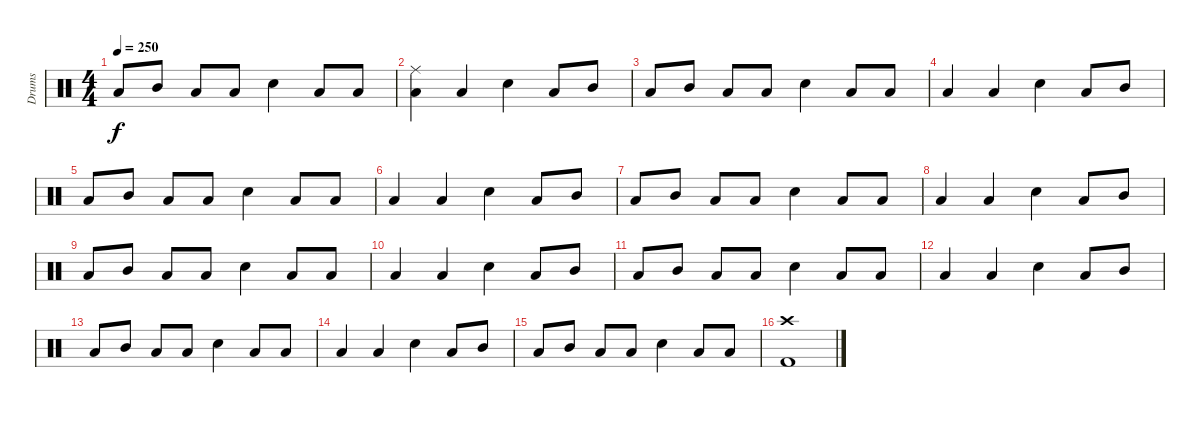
\track ("Drums" "Drums") {instrument percussion}
\staff {score}
\articulation defaults
\ts (4 4)
\tempo 250
\clef neutral
\ks c "Low Tom (hit)".8{dy f} "Mid Tom (hit)".8 "Low Tom (hit)".8 "Low Tom (hit)".8 "Electric Snare (hit)".4 "Low Tom (hit)".8 "Low Tom (hit)".8
|
("Ride (middle)" "Low Tom (hit)").4 "Low Tom (hit)".4 "Electric Snare (hit)".4 "Low Tom (hit)".8 "Mid Tom (hit)".8 |
"Low Tom (hit)".8 "Mid Tom (hit)".8 "Low Tom (hit)".8 "Low Tom (hit)".8 "Electric Snare (hit)".4 "Low Tom (hit)".8 "Low Tom (hit)".8 |
"Low Tom (hit)".4 "Low Tom (hit)".4 "Electric Snare (hit)".4 "Low Tom (hit)".8 "Mid Tom (hit)".8 |
"Low Tom (hit)".8 "Mid Tom (hit)".8 "Low Tom (hit)".8 "Low Tom (hit)".8 "Electric Snare (hit)".4 "Low Tom (hit)".8 "Low Tom (hit)".8 |
"Low Tom (hit)".4 "Low Tom (hit)".4 "Electric Snare (hit)".4 "Low Tom (hit)".8 "Mid Tom (hit)".8 |
"Low Tom (hit)".8 "Mid Tom (hit)".8 "Low Tom (hit)".8 "Low Tom (hit)".8 "Electric Snare (hit)".4 "Low Tom (hit)".8 "Low Tom (hit)".8 |
"Low Tom (hit)".4 "Low Tom (hit)".4 "Electric Snare (hit)".4 "Low Tom (hit)".8 "Mid Tom (hit)".8 |
"Low Tom (hit)".8 "Mid Tom (hit)".8 "Low Tom (hit)".8 "Low Tom (hit)".8 "Electric Snare (hit)".4 "Low Tom (hit)".8 "Low Tom (hit)".8 |
"Low Tom (hit)".4 "Low Tom (hit)".4 "Electric Snare (hit)".4 "Low Tom (hit)".8 "Mid Tom (hit)".8 |
"Low Tom (hit)".8 "Mid Tom (hit)".8 "Low Tom (hit)".8 "Low Tom (hit)".8 "Electric Snare (hit)".4 "Low Tom (hit)".8 "Low Tom (hit)".8 |
"Low Tom (hit)".4 "Low Tom (hit)".4 "Electric Snare (hit)".4 "Low Tom (hit)".8 "Mid Tom (hit)".8 |
"Low Tom (hit)".8 "Mid Tom (hit)".8 "Low Tom (hit)".8 "Low Tom (hit)".8 "Electric Snare (hit)".4 "Low Tom (hit)".8 "Low Tom (hit)".8 |
"Low Tom (hit)".4 "Low Tom (hit)".4 "Electric Snare (hit)".4 "Low Tom (hit)".8 "Mid Tom (hit)".8 |
"Low Tom (hit)".8 "Mid Tom (hit)".8 "Low Tom (hit)".8 "Low Tom (hit)".8 "Electric Snare (hit)".4 "Low Tom (hit)".8 "Low Tom (hit)".8 |
("Crash high (hit)" "Kick (hit) 2").1
